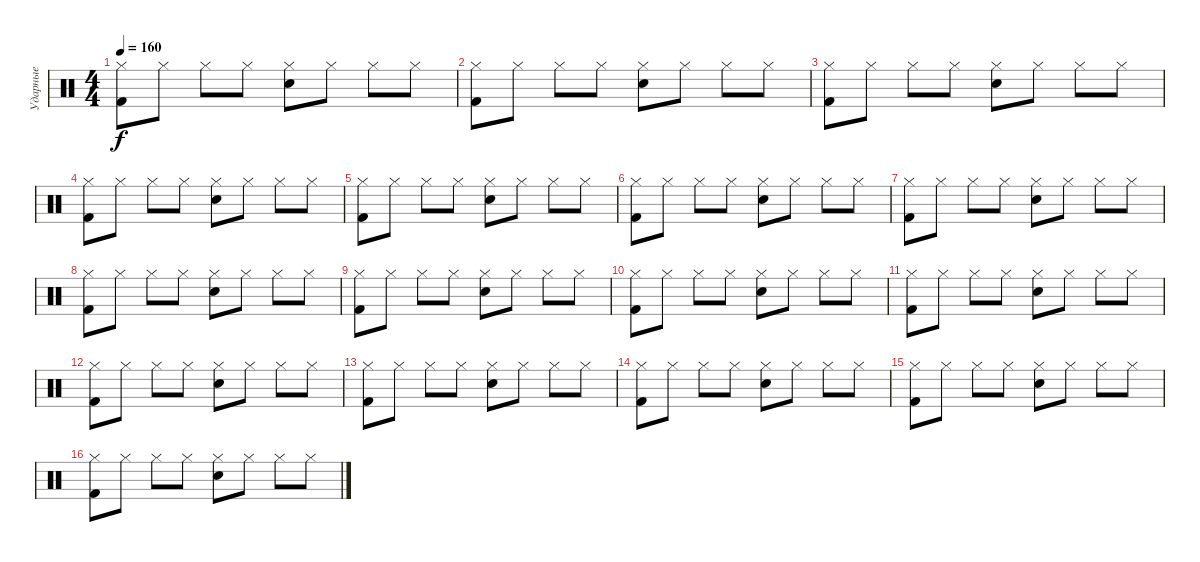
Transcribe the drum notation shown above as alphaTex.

\track ("Ударные" "Ударные") {instrument percussion}
\staff {score}
\articulation defaults
\ts (4 4)
\tempo 160
\clef neutral
\ks c
("Kick (hit) 2" "Hi-Hat (closed)").8{dy f} "Hi-Hat (closed)".8 "Hi-Hat (closed)".8 "Hi-Hat (closed)".8 ("Snare (hit) 2" "Hi-Hat (closed)").8 "Hi-Hat (closed)".8 "Hi-Hat (closed)".8 "Hi-Hat (closed)".8 |
("Kick (hit) 2" "Hi-Hat (closed)").8 "Hi-Hat (closed)".8 "Hi-Hat (closed)".8 "Hi-Hat (closed)".8 ("Snare (hit) 2" "Hi-Hat (closed)").8 "Hi-Hat (closed)".8 "Hi-Hat (closed)".8 "Hi-Hat (closed)".8 |
("Kick (hit) 2" "Hi-Hat (closed)").8 "Hi-Hat (closed)".8 "Hi-Hat (closed)".8 "Hi-Hat (closed)".8 ("Snare (hit) 2" "Hi-Hat (closed)").8 "Hi-Hat (closed)".8 "Hi-Hat (closed)".8 "Hi-Hat (closed)".8 |
("Kick (hit) 2" "Hi-Hat (closed)").8 "Hi-Hat (closed)".8 "Hi-Hat (closed)".8 "Hi-Hat (closed)".8 ("Snare (hit) 2" "Hi-Hat (closed)").8 "Hi-Hat (closed)".8 "Hi-Hat (closed)".8 "Hi-Hat (closed)".8 |
("Kick (hit) 2" "Hi-Hat (closed)").8 "Hi-Hat (closed)".8 "Hi-Hat (closed)".8 "Hi-Hat (closed)".8 ("Snare (hit) 2" "Hi-Hat (closed)").8 "Hi-Hat (closed)".8 "Hi-Hat (closed)".8 "Hi-Hat (closed)".8 |
("Kick (hit) 2" "Hi-Hat (closed)").8 "Hi-Hat (closed)".8 "Hi-Hat (closed)".8 "Hi-Hat (closed)".8 ("Snare (hit) 2" "Hi-Hat (closed)").8 "Hi-Hat (closed)".8 "Hi-Hat (closed)".8 "Hi-Hat (closed)".8 |
("Kick (hit) 2" "Hi-Hat (closed)").8 "Hi-Hat (closed)".8 "Hi-Hat (closed)".8 "Hi-Hat (closed)".8 ("Snare (hit) 2" "Hi-Hat (closed)").8 "Hi-Hat (closed)".8 "Hi-Hat (closed)".8 "Hi-Hat (closed)".8 |
("Kick (hit) 2" "Hi-Hat (closed)").8 "Hi-Hat (closed)".8 "Hi-Hat (closed)".8 "Hi-Hat (closed)".8 ("Snare (hit) 2" "Hi-Hat (closed)").8 "Hi-Hat (closed)".8 "Hi-Hat (closed)".8 "Hi-Hat (closed)".8 |
("Kick (hit) 2" "Hi-Hat (closed)").8 "Hi-Hat (closed)".8 "Hi-Hat (closed)".8 "Hi-Hat (closed)".8 ("Snare (hit) 2" "Hi-Hat (closed)").8 "Hi-Hat (closed)".8 "Hi-Hat (closed)".8 "Hi-Hat (closed)".8 |
("Kick (hit) 2" "Hi-Hat (closed)").8 "Hi-Hat (closed)".8 "Hi-Hat (closed)".8 "Hi-Hat (closed)".8 ("Snare (hit) 2" "Hi-Hat (closed)").8 "Hi-Hat (closed)".8 "Hi-Hat (closed)".8 "Hi-Hat (closed)".8 |
("Kick (hit) 2" "Hi-Hat (closed)").8 "Hi-Hat (closed)".8 "Hi-Hat (closed)".8 "Hi-Hat (closed)".8 ("Snare (hit) 2" "Hi-Hat (closed)").8 "Hi-Hat (closed)".8 "Hi-Hat (closed)".8 "Hi-Hat (closed)".8 |
("Kick (hit) 2" "Hi-Hat (closed)").8 "Hi-Hat (closed)".8 "Hi-Hat (closed)".8 "Hi-Hat (closed)".8 ("Snare (hit) 2" "Hi-Hat (closed)").8 "Hi-Hat (closed)".8 "Hi-Hat (closed)".8 "Hi-Hat (closed)".8 |
("Kick (hit) 2" "Hi-Hat (closed)").8 "Hi-Hat (closed)".8 "Hi-Hat (closed)".8 "Hi-Hat (closed)".8 ("Snare (hit) 2" "Hi-Hat (closed)").8 "Hi-Hat (closed)".8 "Hi-Hat (closed)".8 "Hi-Hat (closed)".8 |
("Kick (hit) 2" "Hi-Hat (closed)").8 "Hi-Hat (closed)".8 "Hi-Hat (closed)".8 "Hi-Hat (closed)".8 ("Snare (hit) 2" "Hi-Hat (closed)").8 "Hi-Hat (closed)".8 "Hi-Hat (closed)".8 "Hi-Hat (closed)".8 |
("Kick (hit) 2" "Hi-Hat (closed)").8 "Hi-Hat (closed)".8 "Hi-Hat (closed)".8 "Hi-Hat (closed)".8 ("Snare (hit) 2" "Hi-Hat (closed)").8 "Hi-Hat (closed)".8 "Hi-Hat (closed)".8 "Hi-Hat (closed)".8 |
("Kick (hit) 2" "Hi-Hat (closed)").8 "Hi-Hat (closed)".8 "Hi-Hat (closed)".8 "Hi-Hat (closed)".8 ("Snare (hit) 2" "Hi-Hat (closed)").8 "Hi-Hat (closed)".8 "Hi-Hat (closed)".8 "Hi-Hat (closed)".8
